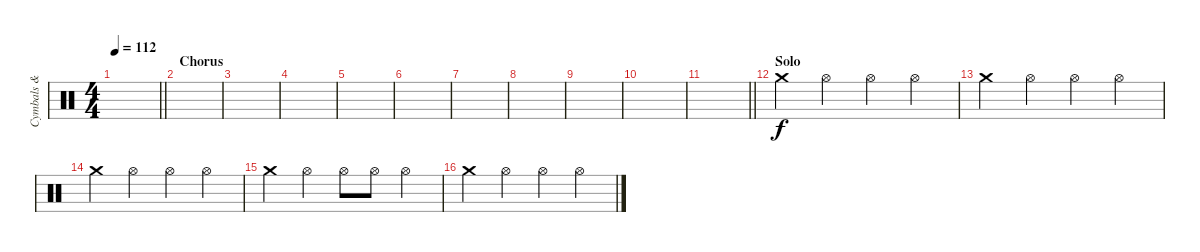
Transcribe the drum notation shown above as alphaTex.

\track ("Cymbals & Hi - Hats" "Cymbals & ") {instrument percussion}
\staff {score}
\articulation defaults
\ts (4 4)
\tempo 112
\clef neutral
\barLineRight lightlight
\ks c
|
\section ("" "Chorus")
|
|
|
|
|
|
|
|
|
\barLineRight lightlight
|
\section ("" "Solo")
"Crash medium (hit)".4 "Hi-Hat (open)".4 "Hi-Hat (open)".4 "Hi-Hat (open)".4 |
"Crash medium (hit)".4 "Hi-Hat (open)".4 "Hi-Hat (open)".4 "Hi-Hat (open)".4 |
"Crash medium (hit)".4 "Hi-Hat (open)".4 "Hi-Hat (open)".4 "Hi-Hat (open)".4 |
"Crash medium (hit)".4 "Hi-Hat (open)".4 "Hi-Hat (open)".8 "Hi-Hat (open)".8 "Hi-Hat (open)".4 |
"Crash medium (hit)".4 "Hi-Hat (open)".4 "Hi-Hat (open)".4 "Hi-Hat (open)".4
